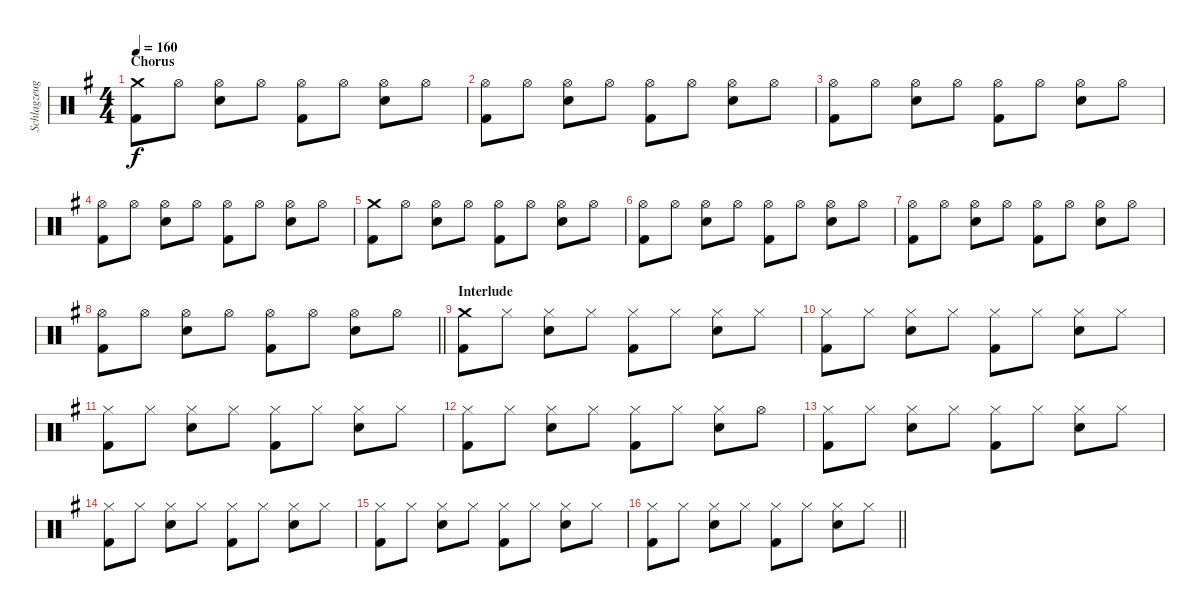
\track ("Schlagzeug" "Schlagzeug") {instrument percussion}
\staff {score}
\articulation defaults
\ts (4 4)
\section ("" "Chorus")
\tempo 160
\clef neutral
\ks g
("Crash medium (hit)" "Kick (hit) 2").8{dy f} "Hi-Hat (open)".8 ("Hi-Hat (open)" "Snare (hit) 2").8 "Hi-Hat (open)".8 ("Hi-Hat (open)" "Kick (hit) 2").8 "Hi-Hat (open)".8 ("Hi-Hat (open)" "Snare (hit) 2").8 "Hi-Hat (open)".8 |
("Hi-Hat (open)" "Kick (hit) 2").8 "Hi-Hat (open)".8 ("Hi-Hat (open)" "Snare (hit) 2").8 "Hi-Hat (open)".8 ("Hi-Hat (open)" "Kick (hit) 2").8 "Hi-Hat (open)".8 ("Hi-Hat (open)" "Snare (hit) 2").8 "Hi-Hat (open)".8 |
("Hi-Hat (open)" "Kick (hit) 2").8 "Hi-Hat (open)".8 ("Hi-Hat (open)" "Snare (hit) 2").8 "Hi-Hat (open)".8 ("Hi-Hat (open)" "Kick (hit) 2").8 "Hi-Hat (open)".8 ("Hi-Hat (open)" "Snare (hit) 2").8 "Hi-Hat (open)".8 |
("Hi-Hat (open)" "Kick (hit) 2").8 "Hi-Hat (open)".8 ("Hi-Hat (open)" "Snare (hit) 2").8 "Hi-Hat (open)".8 ("Hi-Hat (open)" "Kick (hit) 2").8 "Hi-Hat (open)".8 ("Hi-Hat (open)" "Snare (hit) 2").8 "Hi-Hat (open)".8 |
("Crash medium (hit)" "Kick (hit) 2").8 "Hi-Hat (open)".8 ("Hi-Hat (open)" "Snare (hit) 2").8 "Hi-Hat (open)".8 ("Hi-Hat (open)" "Kick (hit) 2").8 "Hi-Hat (open)".8 ("Hi-Hat (open)" "Snare (hit) 2").8 "Hi-Hat (open)".8 |
("Hi-Hat (open)" "Kick (hit) 2").8 "Hi-Hat (open)".8 ("Hi-Hat (open)" "Snare (hit) 2").8 "Hi-Hat (open)".8 ("Hi-Hat (open)" "Kick (hit) 2").8 "Hi-Hat (open)".8 ("Hi-Hat (open)" "Snare (hit) 2").8 "Hi-Hat (open)".8 |
("Hi-Hat (open)" "Kick (hit) 2").8 "Hi-Hat (open)".8 ("Hi-Hat (open)" "Snare (hit) 2").8 "Hi-Hat (open)".8 ("Hi-Hat (open)" "Kick (hit) 2").8 "Hi-Hat (open)".8 ("Hi-Hat (open)" "Snare (hit) 2").8 "Hi-Hat (open)".8 |
\barLineRight lightlight
("Hi-Hat (open)" "Kick (hit) 2").8 "Hi-Hat (open)".8 ("Hi-Hat (open)" "Snare (hit) 2").8 "Hi-Hat (open)".8 ("Hi-Hat (open)" "Kick (hit) 2").8 "Hi-Hat (open)".8 ("Hi-Hat (open)" "Snare (hit) 2").8 "Hi-Hat (open)".8 |
\section ("" "Interlude")
("Crash medium (hit)" "Kick (hit) 2").8 "Hi-Hat (closed)".8 ("Hi-Hat (closed)" "Snare (hit) 2").8 "Hi-Hat (closed)".8 ("Hi-Hat (closed)" "Kick (hit) 2").8 "Hi-Hat (closed)".8 ("Hi-Hat (closed)" "Snare (hit) 2").8 "Hi-Hat (closed)".8 |
("Hi-Hat (closed)" "Kick (hit) 2").8 "Hi-Hat (closed)".8 ("Hi-Hat (closed)" "Snare (hit) 2").8 "Hi-Hat (closed)".8 ("Hi-Hat (closed)" "Kick (hit) 2").8 "Hi-Hat (closed)".8 ("Hi-Hat (closed)" "Snare (hit) 2").8 "Hi-Hat (closed)".8 |
("Hi-Hat (closed)" "Kick (hit) 2").8 "Hi-Hat (closed)".8 ("Hi-Hat (closed)" "Snare (hit) 2").8 "Hi-Hat (closed)".8 ("Hi-Hat (closed)" "Kick (hit) 2").8 "Hi-Hat (closed)".8 ("Hi-Hat (closed)" "Snare (hit) 2").8 "Hi-Hat (closed)".8 |
("Hi-Hat (closed)" "Kick (hit) 2").8 "Hi-Hat (closed)".8 ("Hi-Hat (closed)" "Snare (hit) 2").8 "Hi-Hat (closed)".8 ("Hi-Hat (closed)" "Kick (hit) 2").8 "Hi-Hat (closed)".8 ("Hi-Hat (closed)" "Snare (hit) 2").8 "Hi-Hat (open)".8 |
("Hi-Hat (closed)" "Kick (hit) 2").8 "Hi-Hat (closed)".8 ("Hi-Hat (closed)" "Snare (hit) 2").8 "Hi-Hat (closed)".8 ("Hi-Hat (closed)" "Kick (hit) 2").8 "Hi-Hat (closed)".8 ("Hi-Hat (closed)" "Snare (hit) 2").8 "Hi-Hat (closed)".8 |
("Hi-Hat (closed)" "Kick (hit) 2").8 "Hi-Hat (closed)".8 ("Hi-Hat (closed)" "Snare (hit) 2").8 "Hi-Hat (closed)".8 ("Hi-Hat (closed)" "Kick (hit) 2").8 "Hi-Hat (closed)".8 ("Hi-Hat (closed)" "Snare (hit) 2").8 "Hi-Hat (closed)".8 |
("Hi-Hat (closed)" "Kick (hit) 2").8 "Hi-Hat (closed)".8 ("Hi-Hat (closed)" "Snare (hit) 2").8 "Hi-Hat (closed)".8 ("Hi-Hat (closed)" "Kick (hit) 2").8 "Hi-Hat (closed)".8 ("Hi-Hat (closed)" "Snare (hit) 2").8 "Hi-Hat (closed)".8 |
\barLineRight lightlight
("Hi-Hat (closed)" "Kick (hit) 2").8 "Hi-Hat (closed)".8 ("Hi-Hat (closed)" "Snare (hit) 2").8 "Hi-Hat (closed)".8 ("Hi-Hat (closed)" "Kick (hit) 2").8 "Hi-Hat (closed)".8 ("Hi-Hat (closed)" "Snare (hit) 2").8 "Hi-Hat (closed)".8
